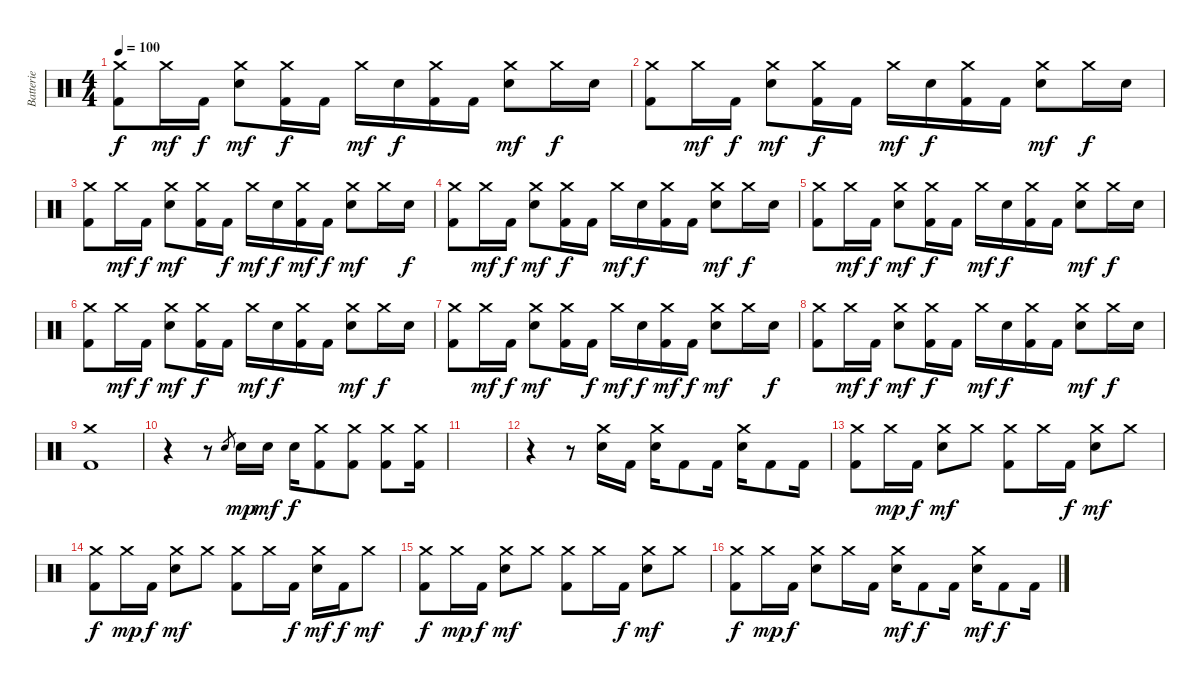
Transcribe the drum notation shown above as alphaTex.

\track ("Batterie" "Batterie") {instrument percussion}
\staff {score}
\articulation defaults
\ts (4 4)
\tempo 100
\clef neutral
\ks c
("Crash medium (hit)" "Kick (hit) 2").8{dy f} "Crash medium (hit)".16{dy mf} "Kick (hit) 2".16{dy f} ("Crash medium (hit)" "Electric Snare (hit)").8{dy mf} ("Crash medium (hit)" "Kick (hit) 2").16{dy f} "Kick (hit) 2".16 "Crash medium (hit)".16{dy mf} "Electric Snare (hit)".16{dy f} ("Crash medium (hit)" "Kick (hit) 2").16 "Kick (hit) 2".16 ("Crash medium (hit)" "Electric Snare (hit)").8{dy mf} "Crash medium (hit)".16{dy f} "Electric Snare (hit)".16 |
("Crash medium (hit)" "Kick (hit) 2").8 "Crash medium (hit)".16{dy mf} "Kick (hit) 2".16{dy f} ("Crash medium (hit)" "Electric Snare (hit)").8{dy mf} ("Crash medium (hit)" "Kick (hit) 2").16{dy f} "Kick (hit) 2".16 "Crash medium (hit)".16{dy mf} "Electric Snare (hit)".16{dy f} ("Crash medium (hit)" "Kick (hit) 2").16 "Kick (hit) 2".16 ("Crash medium (hit)" "Electric Snare (hit)").8{dy mf} "Crash medium (hit)".16{dy f} "Electric Snare (hit)".16 |
("Crash medium (hit)" "Kick (hit) 2").8 "Crash medium (hit)".16{dy mf} "Kick (hit) 2".16{dy f} ("Crash medium (hit)" "Electric Snare (hit)").8{dy mf} ("Crash medium (hit)" "Kick (hit) 2").16 "Kick (hit) 2".16{dy f} "Crash medium (hit)".16{dy mf} "Electric Snare (hit)".16{dy f} ("Crash medium (hit)" "Kick (hit) 2").16{dy mf} "Kick (hit) 2".16{dy f} ("Crash medium (hit)" "Electric Snare (hit)").8{dy mf} "Crash medium (hit)".16 "Electric Snare (hit)".16{dy f} |
("Crash medium (hit)" "Kick (hit) 2").8 "Crash medium (hit)".16{dy mf} "Kick (hit) 2".16{dy f} ("Crash medium (hit)" "Electric Snare (hit)").8{dy mf} ("Crash medium (hit)" "Kick (hit) 2").16{dy f} "Kick (hit) 2".16 "Crash medium (hit)".16{dy mf} "Electric Snare (hit)".16{dy f} ("Crash medium (hit)" "Kick (hit) 2").16 "Kick (hit) 2".16 ("Crash medium (hit)" "Electric Snare (hit)").8{dy mf} "Crash medium (hit)".16{dy f} "Electric Snare (hit)".16 |
("Crash medium (hit)" "Kick (hit) 2").8 "Crash medium (hit)".16{dy mf} "Kick (hit) 2".16{dy f} ("Crash medium (hit)" "Electric Snare (hit)").8{dy mf} ("Crash medium (hit)" "Kick (hit) 2").16{dy f} "Kick (hit) 2".16 "Crash medium (hit)".16{dy mf} "Electric Snare (hit)".16{dy f} ("Crash medium (hit)" "Kick (hit) 2").16 "Kick (hit) 2".16 ("Crash medium (hit)" "Electric Snare (hit)").8{dy mf} "Crash medium (hit)".16{dy f} "Electric Snare (hit)".16 |
("Crash medium (hit)" "Kick (hit) 2").8 "Crash medium (hit)".16{dy mf} "Kick (hit) 2".16{dy f} ("Crash medium (hit)" "Electric Snare (hit)").8{dy mf} ("Crash medium (hit)" "Kick (hit) 2").16{dy f} "Kick (hit) 2".16 "Crash medium (hit)".16{dy mf} "Electric Snare (hit)".16{dy f} ("Crash medium (hit)" "Kick (hit) 2").16 "Kick (hit) 2".16 ("Crash medium (hit)" "Electric Snare (hit)").8{dy mf} "Crash medium (hit)".16{dy f} "Electric Snare (hit)".16 |
("Crash medium (hit)" "Kick (hit) 2").8 "Crash medium (hit)".16{dy mf} "Kick (hit) 2".16{dy f} ("Crash medium (hit)" "Electric Snare (hit)").8{dy mf} ("Crash medium (hit)" "Kick (hit) 2").16 "Kick (hit) 2".16{dy f} "Crash medium (hit)".16{dy mf} "Electric Snare (hit)".16{dy f} ("Crash medium (hit)" "Kick (hit) 2").16{dy mf} "Kick (hit) 2".16{dy f} ("Crash medium (hit)" "Electric Snare (hit)").8{dy mf} "Crash medium (hit)".16 "Electric Snare (hit)".16{dy f} |
("Crash medium (hit)" "Kick (hit) 2").8 "Crash medium (hit)".16{dy mf} "Kick (hit) 2".16{dy f} ("Crash medium (hit)" "Electric Snare (hit)").8{dy mf} ("Crash medium (hit)" "Kick (hit) 2").16{dy f} "Kick (hit) 2".16 "Crash medium (hit)".16{dy mf} "Electric Snare (hit)".16{dy f} ("Crash medium (hit)" "Kick (hit) 2").16 "Kick (hit) 2".16 ("Crash medium (hit)" "Electric Snare (hit)").8{dy mf} "Crash medium (hit)".16{dy f} "Electric Snare (hit)".16 |
("Crash medium (hit)" "Kick (hit) 2").1 |
r.4 r.8 "Electric Snare (hit)".8{gr} "Electric Snare (hit)".16{dy mp} "Electric Snare (hit)".16{dy mf} "Electric Snare (hit)".16{dy f} ("Crash medium (hit)" "Kick (hit) 2").8 ("Crash medium (hit)" "Kick (hit) 2").8 ("Crash medium (hit)" "Kick (hit) 2").8 ("Crash medium (hit)" "Kick (hit) 2").16 |
|
r.4 r.8 ("Crash medium (hit)" "Electric Snare (hit)").16 "Kick (hit) 2".16 ("Crash medium (hit)" "Electric Snare (hit)").16 "Kick (hit) 2".8 "Kick (hit) 2".16 ("Crash medium (hit)" "Electric Snare (hit)").16 "Kick (hit) 2".8 "Kick (hit) 2".16 |
("Crash medium (hit)" "Kick (hit) 2").8 "Crash medium (hit)".16{dy mp} "Kick (hit) 2".16{dy f} ("Crash medium (hit)" "Electric Snare (hit)").8{dy mf} "Crash medium (hit)".8 ("Crash medium (hit)" "Kick (hit) 2").8 "Crash medium (hit)".16 "Kick (hit) 2".16{dy f} ("Crash medium (hit)" "Electric Snare (hit)").8{dy mf} "Crash medium (hit)".8 |
("Crash medium (hit)" "Kick (hit) 2").8{dy f} "Crash medium (hit)".16{dy mp} "Kick (hit) 2".16{dy f} ("Crash medium (hit)" "Electric Snare (hit)").8{dy mf} "Crash medium (hit)".8 ("Crash medium (hit)" "Kick (hit) 2").8 "Crash medium (hit)".16 "Kick (hit) 2".16{dy f} ("Crash medium (hit)" "Electric Snare (hit)").16{dy mf} "Kick (hit) 2".16{dy f} "Crash medium (hit)".8{dy mf} |
("Crash medium (hit)" "Kick (hit) 2").8{dy f} "Crash medium (hit)".16{dy mp} "Kick (hit) 2".16{dy f} ("Crash medium (hit)" "Electric Snare (hit)").8{dy mf} "Crash medium (hit)".8 ("Crash medium (hit)" "Kick (hit) 2").8 "Crash medium (hit)".16 "Kick (hit) 2".16{dy f} ("Crash medium (hit)" "Electric Snare (hit)").8{dy mf} "Crash medium (hit)".8 |
("Crash medium (hit)" "Kick (hit) 2").8{dy f} "Crash medium (hit)".16{dy mp} "Kick (hit) 2".16{dy f} ("Crash medium (hit)" "Electric Snare (hit)").8 "Crash medium (hit)".16 "Kick (hit) 2".16 ("Crash medium (hit)" "Electric Snare (hit)").16{dy mf} "Kick (hit) 2".8{dy f} "Kick (hit) 2".16 ("Crash medium (hit)" "Electric Snare (hit)").16{dy mf} "Kick (hit) 2".8{dy f} "Kick (hit) 2".16
